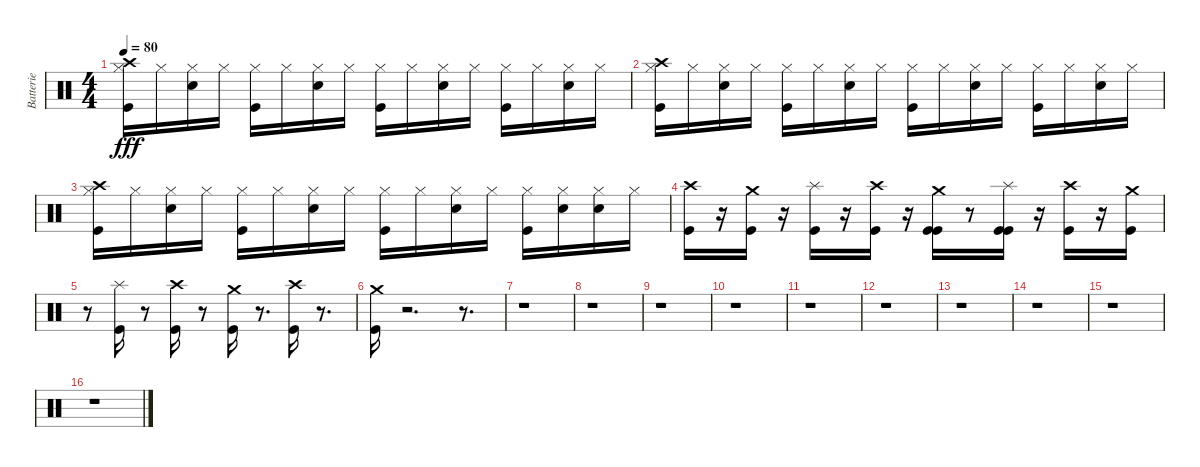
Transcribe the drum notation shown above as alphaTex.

\track ("Batterie" "Batterie") {instrument percussion}
\staff {score}
\articulation defaults
\ts (4 4)
\tempo 80
\clef neutral
\ks c
("Hi-Hat (closed)" "Kick (hit)" "Crash high (hit)").16{dy fff} "Hi-Hat (closed)".16 ("Hi-Hat (closed)" "Metronome (bell)").16 "Hi-Hat (closed)".16 ("Hi-Hat (closed)" "Kick (hit)").16 "Hi-Hat (closed)".16 ("Hi-Hat (closed)" "Metronome (bell)").16 "Hi-Hat (closed)".16 ("Hi-Hat (closed)" "Kick (hit)").16 "Hi-Hat (closed)".16 ("Hi-Hat (closed)" "Metronome (bell)").16 "Hi-Hat (closed)".16 ("Hi-Hat (closed)" "Kick (hit)").16 "Hi-Hat (closed)".16 ("Hi-Hat (closed)" "Metronome (bell)").16 "Hi-Hat (closed)".16 |
("Hi-Hat (closed)" "Kick (hit)" "Crash high (hit)").16 "Hi-Hat (closed)".16 ("Hi-Hat (closed)" "Metronome (bell)").16 "Hi-Hat (closed)".16 ("Hi-Hat (closed)" "Kick (hit)").16 "Hi-Hat (closed)".16 ("Hi-Hat (closed)" "Metronome (bell)").16 "Hi-Hat (closed)".16 ("Hi-Hat (closed)" "Kick (hit)").16 "Hi-Hat (closed)".16 ("Hi-Hat (closed)" "Metronome (bell)").16 "Hi-Hat (closed)".16 ("Hi-Hat (closed)" "Kick (hit)").16 "Hi-Hat (closed)".16 ("Hi-Hat (closed)" "Metronome (bell)").16 "Hi-Hat (closed)".16 |
("Hi-Hat (closed)" "Kick (hit)" "Crash high (hit)").16 "Hi-Hat (closed)".16 ("Hi-Hat (closed)" "Metronome (bell)").16 "Hi-Hat (closed)".16 ("Hi-Hat (closed)" "Kick (hit)").16 "Hi-Hat (closed)".16 ("Hi-Hat (closed)" "Metronome (bell)").16 "Hi-Hat (closed)".16 ("Hi-Hat (closed)" "Kick (hit)").16 "Hi-Hat (closed)".16 ("Hi-Hat (closed)" "Metronome (bell)").16 "Hi-Hat (closed)".16 ("Hi-Hat (closed)" "Kick (hit)").16 ("Hi-Hat (closed)" "Metronome (bell)").16 ("Hi-Hat (closed)" "Metronome (bell)").16 "Hi-Hat (closed)".16 |
("Kick (hit)" "Crash high (hit)").16 r.16 ("Kick (hit)" "Crash medium (hit)").16 r.16 ("Kick (hit)" "Splash (hit)").16 r.16 ("Kick (hit)" "Crash high (hit)").16 r.16 ("Kick (hit)" "Crash medium (hit)" "Kick (hit)").16 r.8 ("Kick (hit)" "Kick (hit)" "Splash (hit)").16 r.16 ("Kick (hit)" "Crash high (hit)").16 r.16 ("Crash medium (hit)" "Kick (hit)").16 |
r.8 ("Kick (hit)" "Splash (hit)").16 r.8 ("Kick (hit)" "Crash high (hit)").16 r.8 ("Crash medium (hit)" "Kick (hit)").16 r.8{d} ("Kick (hit)" "Crash high (hit)").16 r.8{d} |
("Crash medium (hit)" "Kick (hit)").16 r.2{d} r.8{d} |
r.1 |
r.1 |
r.1 |
r.1 |
r.1 |
r.1 |
r.1 |
r.1 |
r.1 |
r.1
